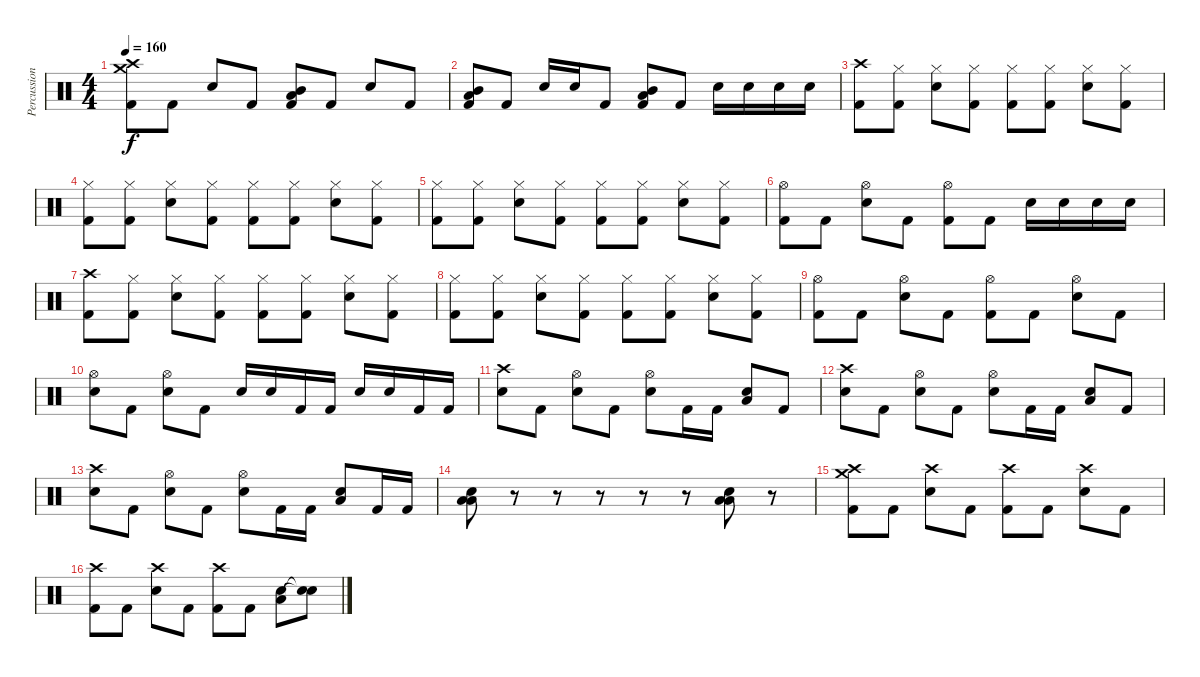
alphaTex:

\track ("Percussion" "Percussion") {instrument percussion}
\staff {score}
\articulation defaults
\ts (4 4)
\tempo 160
\clef neutral
\ks c
("Crash high (hit)" "Crash medium (hit)" "Kick (hit) 2").8{dy f} "Kick (hit) 2".8 "Snare (hit) 2".8 "Kick (hit) 2".8 ("Mid Tom (hit)" "Low Floor Tom (hit)" "Kick (hit) 2").8 "Kick (hit) 2".8 "Snare (hit) 2".8 "Kick (hit) 2".8 |
("Mid Tom (hit)" "Low Floor Tom (hit)" "Kick (hit) 2").8 "Kick (hit) 2".8 "Snare (hit) 2".16 "Snare (hit) 2".16 "Kick (hit) 2".8 ("Mid Tom (hit)" "Low Floor Tom (hit)" "Kick (hit) 2").8 "Kick (hit) 2".8 "Snare (hit) 2".16 "Snare (hit) 2".16 "Snare (hit) 2".16 "Snare (hit) 2".16 |
("Crash high (hit)" "Kick (hit) 2").8 ("Hi-Hat (closed)" "Kick (hit) 2").8 ("Hi-Hat (closed)" "Snare (hit) 2").8 ("Hi-Hat (closed)" "Kick (hit) 2").8 ("Hi-Hat (closed)" "Kick (hit) 2").8 ("Hi-Hat (closed)" "Kick (hit) 2").8 ("Hi-Hat (closed)" "Snare (hit) 2").8 ("Hi-Hat (closed)" "Kick (hit) 2").8 |
("Hi-Hat (closed)" "Kick (hit) 2").8 ("Hi-Hat (closed)" "Kick (hit) 2").8 ("Hi-Hat (closed)" "Snare (hit) 2").8 ("Hi-Hat (closed)" "Kick (hit) 2").8 ("Hi-Hat (closed)" "Kick (hit) 2").8 ("Hi-Hat (closed)" "Kick (hit) 2").8 ("Hi-Hat (closed)" "Snare (hit) 2").8 ("Hi-Hat (closed)" "Kick (hit) 2").8 |
("Hi-Hat (closed)" "Kick (hit) 2").8 ("Hi-Hat (closed)" "Kick (hit) 2").8 ("Hi-Hat (closed)" "Snare (hit) 2").8 ("Hi-Hat (closed)" "Kick (hit) 2").8 ("Hi-Hat (closed)" "Kick (hit) 2").8 ("Hi-Hat (closed)" "Kick (hit) 2").8 ("Hi-Hat (closed)" "Snare (hit) 2").8 ("Hi-Hat (closed)" "Kick (hit) 2").8 |
("Hi-Hat (open)" "Kick (hit) 2").8 "Kick (hit) 2".8 ("Hi-Hat (open)" "Snare (hit) 2").8 "Kick (hit) 2".8 ("Hi-Hat (open)" "Kick (hit) 2").8 "Kick (hit) 2".8 "Snare (hit) 2".16 "Snare (hit) 2".16 "Snare (hit) 2".16 "Snare (hit) 2".16 |
("Crash high (hit)" "Kick (hit) 2").8 ("Hi-Hat (closed)" "Kick (hit) 2").8 ("Hi-Hat (closed)" "Snare (hit) 2").8 ("Hi-Hat (closed)" "Kick (hit) 2").8 ("Hi-Hat (closed)" "Kick (hit) 2").8 ("Hi-Hat (closed)" "Kick (hit) 2").8 ("Hi-Hat (closed)" "Snare (hit) 2").8 ("Hi-Hat (closed)" "Kick (hit) 2").8 |
("Hi-Hat (closed)" "Kick (hit) 2").8 ("Hi-Hat (closed)" "Kick (hit) 2").8 ("Hi-Hat (closed)" "Snare (hit) 2").8 ("Hi-Hat (closed)" "Kick (hit) 2").8 ("Hi-Hat (closed)" "Kick (hit) 2").8 ("Hi-Hat (closed)" "Kick (hit) 2").8 ("Hi-Hat (closed)" "Snare (hit) 2").8 ("Hi-Hat (closed)" "Kick (hit) 2").8 |
("Hi-Hat (open)" "Kick (hit) 2").8 "Kick (hit) 2".8 ("Hi-Hat (open)" "Snare (hit) 2").8 "Kick (hit) 2".8 ("Hi-Hat (open)" "Kick (hit) 2").8 "Kick (hit) 2".8 ("Hi-Hat (open)" "Snare (hit) 2").8 "Kick (hit) 2".8 |
("Hi-Hat (open)" "Snare (hit) 2").8 "Kick (hit) 2".8 ("Hi-Hat (open)" "Snare (hit) 2").8 "Kick (hit) 2".8 "Snare (hit) 2".16 "Snare (hit) 2".16 "Kick (hit) 2".16 "Kick (hit) 2".16 "Snare (hit) 2".16 "Snare (hit) 2".16 "Kick (hit) 2".16 "Kick (hit) 2".16 |
("Crash high (hit)" "Snare (hit) 2").8 "Kick (hit) 2".8 ("Hi-Hat (open)" "Snare (hit) 2").8 "Kick (hit) 2".8 ("Hi-Hat (open)" "Snare (hit) 2").8 "Kick (hit) 2".16 "Kick (hit) 2".16 ("Low Floor Tom (hit)" "Snare (hit) 2").8 "Kick (hit) 2".8 |
("Crash high (hit)" "Snare (hit) 2").8 "Kick (hit) 2".8 ("Hi-Hat (open)" "Snare (hit) 2").8 "Kick (hit) 2".8 ("Hi-Hat (open)" "Snare (hit) 2").8 "Kick (hit) 2".16 "Kick (hit) 2".16 ("Low Floor Tom (hit)" "Snare (hit) 2").8 "Kick (hit) 2".8 |
("Crash high (hit)" "Snare (hit) 2").8 "Kick (hit) 2".8 ("Hi-Hat (open)" "Snare (hit) 2").8 "Kick (hit) 2".8 ("Hi-Hat (open)" "Snare (hit) 2").8 "Kick (hit) 2".16 "Kick (hit) 2".16 ("Low Floor Tom (hit)" "Snare (hit) 2").8 "Kick (hit) 2".16 "Kick (hit) 2".16 |
("Low Floor Tom (hit)" "Low Floor Tom (hit)" "Snare (hit) 2").8 r.8 r.8 r.8 r.8 r.8 ("Low Floor Tom (hit)" "Low Floor Tom (hit)" "Snare (hit) 2").8 r.8 |
("Crash high (hit)" "Crash medium (hit)" "Kick (hit) 2").8 "Kick (hit) 2".8 ("Crash high (hit)" "Snare (hit) 2").8 "Kick (hit) 2".8 ("Crash high (hit)" "Kick (hit) 2").8 "Kick (hit) 2".8 ("Crash high (hit)" "Snare (hit) 2").8 "Kick (hit) 2".8 |
("Crash high (hit)" "Kick (hit) 2").8 "Kick (hit) 2".8 ("Crash high (hit)" "Snare (hit) 2").8 "Kick (hit) 2".8 ("Crash high (hit)" "Kick (hit) 2").8 "Kick (hit) 2".8 ("Low Floor Tom (hit)" "Snare (hit) 2").8 ("Snare (hit)"{t} "Snare (hit)"{t}).8
